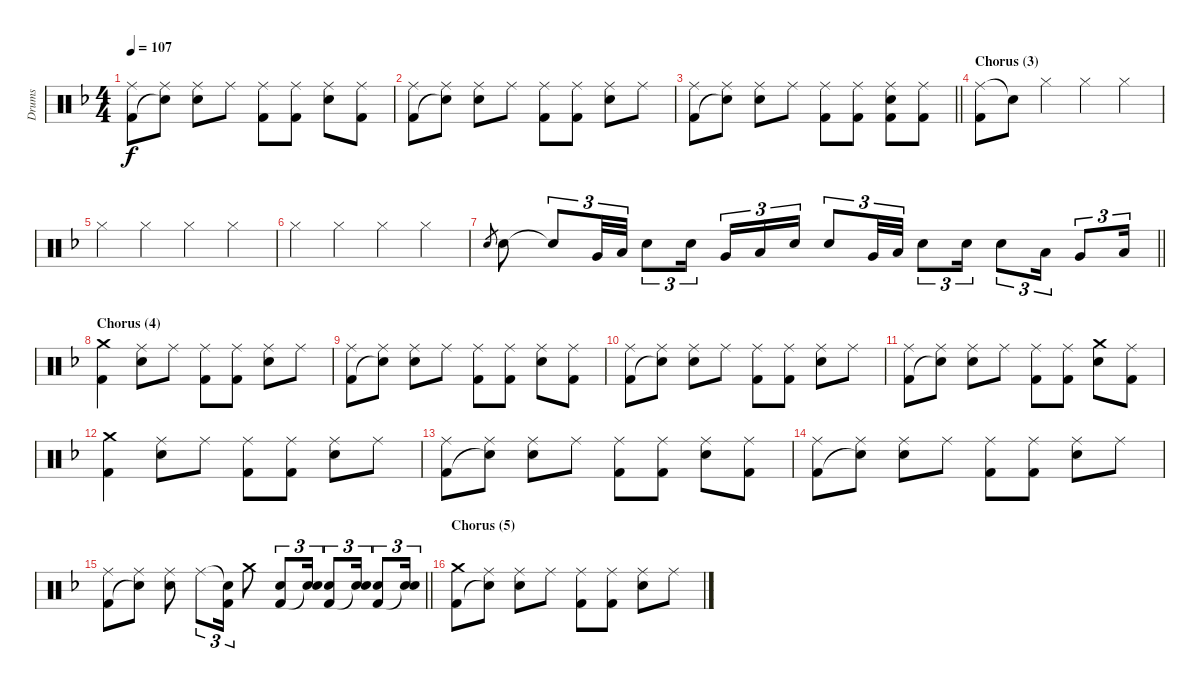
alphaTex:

\track ("Drums" "Drums") {instrument percussion}
\staff {score}
\articulation defaults
\ts (4 4)
\tempo 107
\clef neutral
\ks dminor
("Ride (middle)" "Kick (hit) 2").8{dy f} ("Ride (middle)" "Snare (hit)"{t}).8 ("Ride (middle)" "Electric Snare (hit)").8 "Ride (middle)".8 ("Ride (middle)" "Kick (hit) 2").8 ("Ride (middle)" "Kick (hit) 2").8 ("Ride (middle)" "Electric Snare (hit)").8 ("Ride (middle)" "Kick (hit) 2").8 |
("Ride (middle)" "Kick (hit) 2").8 ("Ride (middle)" "Snare (hit)"{t}).8 ("Ride (middle)" "Electric Snare (hit)").8 "Ride (middle)".8 ("Ride (middle)" "Kick (hit) 2").8 ("Ride (middle)" "Kick (hit) 2").8 ("Ride (middle)" "Electric Snare (hit)").8 "Ride (middle)".8 |
\barLineRight lightlight
("Ride (middle)" "Kick (hit) 2").8 ("Ride (middle)" "Snare (hit)"{t}).8 ("Ride (middle)" "Electric Snare (hit)").8 "Ride (middle)".8 ("Ride (middle)" "Kick (hit) 2").8 ("Ride (middle)" "Kick (hit) 2").8 ("Ride (middle)" "Electric Snare (hit)" "Kick (hit) 2").8 ("Ride (middle)" "Kick (hit) 2").8 |
\section ("" "Chorus (3)")
("Ride (middle)" "Kick (hit) 2").8 "Snare (hit)"{t}.8 "Hi-Hat (closed)".4 "Hi-Hat (closed)".4 "Hi-Hat (closed)".4 |
"Hi-Hat (closed)".4 "Hi-Hat (closed)".4 "Hi-Hat (closed)".4 "Hi-Hat (closed)".4 |
"Hi-Hat (closed)".4 "Hi-Hat (closed)".4 "Hi-Hat (closed)".4 "Hi-Hat (closed)".4 |
\barLineRight lightlight "Electric Snare (hit)".8{gr} "Electric Snare (hit)".8 "Snare (hit)"{t}.8{tu (3 2)} "Very Low Tom (hit)".32{tu (3 2)} "Low Tom (hit)".32{tu (3 2)} "Electric Snare (hit)".8{tu (3 2)} "Electric Snare (hit)".16{tu (3 2)} "Very Low Tom (hit)".16{tu (3 2)} "Low Tom (hit)".16{tu (3 2)} "Electric Snare (hit)".16{tu (3 2)} "Electric Snare (hit)".8{tu (3 2)} "Very Low Tom (hit)".32{tu (3 2)} "Low Tom (hit)".32{tu (3 2)} "Electric Snare (hit)".8{tu (3 2)} "Electric Snare (hit)".16{tu (3 2)} "Electric Snare (hit)".8{tu (3 2)} "Low Tom (hit)".16{tu (3 2)} "Very Low Tom (hit)".8{tu (3 2)} "Low Floor Tom (hit)".16{tu (3 2)}
|
\section ("" "Chorus (4)")
("Crash medium (hit)" "Kick (hit) 2").4 ("Ride (middle)" "Electric Snare (hit)").8 "Ride (middle)".8 ("Ride (middle)" "Kick (hit) 2").8 ("Ride (middle)" "Kick (hit) 2").8 ("Ride (middle)" "Electric Snare (hit)").8 "Ride (middle)".8 |
("Ride (middle)" "Kick (hit) 2").8 ("Ride (middle)" "Snare (hit)"{t}).8 ("Ride (middle)" "Electric Snare (hit)").8 "Ride (middle)".8 ("Ride (middle)" "Kick (hit) 2").8 ("Ride (middle)" "Kick (hit) 2").8 ("Ride (middle)" "Electric Snare (hit)").8 ("Ride (middle)" "Kick (hit) 2").8 |
("Ride (middle)" "Kick (hit) 2").8 ("Ride (middle)" "Snare (hit)"{t}).8 ("Ride (middle)" "Electric Snare (hit)").8 "Ride (middle)".8 ("Ride (middle)" "Kick (hit) 2").8 ("Ride (middle)" "Kick (hit) 2").8 ("Ride (middle)" "Electric Snare (hit)").8 "Ride (middle)".8 |
("Ride (middle)" "Kick (hit) 2").8 ("Ride (middle)" "Snare (hit)"{t}).8 ("Ride (middle)" "Electric Snare (hit)").8 "Ride (middle)".8 ("Ride (middle)" "Kick (hit) 2").8 ("Ride (middle)" "Kick (hit) 2").8 ("Crash medium (hit)" "Electric Snare (hit)").8 ("Ride (middle)" "Kick (hit) 2").8 |
("Crash medium (hit)" "Kick (hit) 2").4 ("Ride (middle)" "Electric Snare (hit)").8 "Ride (middle)".8 ("Ride (middle)" "Kick (hit) 2").8 ("Ride (middle)" "Kick (hit) 2").8 ("Ride (middle)" "Electric Snare (hit)").8 "Ride (middle)".8 |
("Ride (middle)" "Kick (hit) 2").8 ("Ride (middle)" "Snare (hit)"{t}).8 ("Ride (middle)" "Electric Snare (hit)").8 "Ride (middle)".8 ("Ride (middle)" "Kick (hit) 2").8 ("Ride (middle)" "Kick (hit) 2").8 ("Ride (middle)" "Electric Snare (hit)").8 ("Ride (middle)" "Kick (hit) 2").8 |
("Ride (middle)" "Kick (hit) 2").8 ("Ride (middle)" "Snare (hit)"{t}).8 ("Ride (middle)" "Electric Snare (hit)").8 "Ride (middle)".8 ("Ride (middle)" "Kick (hit) 2").8 ("Ride (middle)" "Kick (hit) 2").8 ("Ride (middle)" "Electric Snare (hit)").8 "Ride (middle)".8 |
\barLineRight lightlight
("Ride (middle)" "Kick (hit) 2").8 ("Ride (middle)" "Snare (hit)"{t}).8 ("Ride (middle)" "Electric Snare (hit)").8 "Ride (middle)".8{tu (3 2)} ("Snare (hit)"{t} "Kick (hit) 2").16{tu (3 2)} "Crash medium (hit)".8 ("Electric Snare (hit)" "Kick (hit) 2").8{tu (3 2)} ("Electric Snare (hit)" "Snare (hit)"{t}).16{tu (3 2)} ("Electric Snare (hit)" "Kick (hit) 2").8{tu (3 2)} ("Electric Snare (hit)" "Snare (hit)"{t}).16{tu (3 2)} ("Electric Snare (hit)" "Kick (hit) 2").8{tu (3 2)} ("Electric Snare (hit)" "Snare (hit)"{t}).16{tu (3 2)} |
\section ("" "Chorus (5)")
("Crash medium (hit)" "Kick (hit) 2").8 ("Ride (middle)" "Snare (hit)"{t}).8 ("Ride (middle)" "Electric Snare (hit)").8 "Ride (middle)".8 ("Ride (middle)" "Kick (hit) 2").8 ("Ride (middle)" "Kick (hit) 2").8 ("Ride (middle)" "Electric Snare (hit)").8 "Ride (middle)".8
